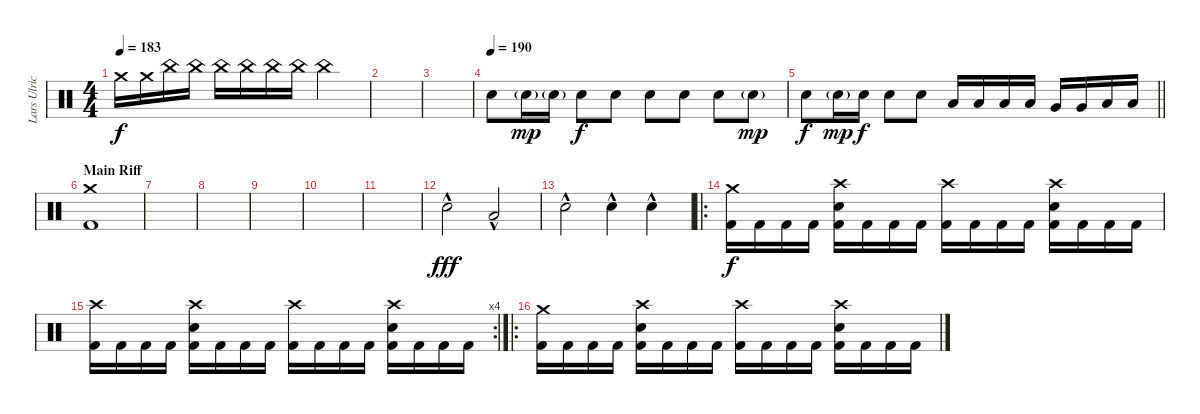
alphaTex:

\track ("Lars Ulrich" "Lars Ulric") {instrument percussion}
\staff {score}
\articulation defaults
\ts (4 4)
\tempo 183
\clef neutral
\ks c "Crash medium (hit)".16{dy f} "Crash medium (hit)".16 "China (hit)".16 "China (hit)".16 "China (hit)".16 "China (hit)".16 "China (hit)".16 "China (hit)".16 "China (hit)".2
|
|
|
\tempo (190)
"Snare (hit) 2".8 "Snare (hit) 2"{g}.16{dy mp} "Snare (hit) 2"{g}.16 "Snare (hit) 2".8{dy f} "Snare (hit) 2".8 "Snare (hit) 2".8 "Snare (hit) 2".8 "Snare (hit) 2".8 "Snare (hit) 2"{g}.8{dy mp} |
\barLineRight lightlight "Snare (hit) 2".8{dy f} "Snare (hit) 2"{g}.16{dy mp} "Snare (hit) 2".16{dy f} "Snare (hit) 2".8 "Snare (hit) 2".8 "Low Tom (hit)".16 "Low Tom (hit)".16 "Low Tom (hit)".16 "Low Tom (hit)".16 "Very Low Tom (hit)".16 "Very Low Tom (hit)".16 "Low Floor Tom (hit)".16 "Low Floor Tom (hit)".16
|
\section ("" "Main Riff")
("Crash medium (hit)" "Kick (hit) 2").1 |
|
|
|
|
|
"Snare (hit) 2"{hac}.2{dy fff} "Low Tom (hit)"{hac}.2 |
"Snare (hit) 2"{hac}.2 "Snare (hit) 2"{hac}.4 "Snare (hit) 2"{hac}.4 |
\ro
("Crash medium (hit)" "Kick (hit) 2").16{dy f} "Kick (hit) 2".16 "Kick (hit) 2".16 "Kick (hit) 2".16 ("Crash high (hit)" "Snare (hit) 2" "Kick (hit) 2").16 "Kick (hit) 2".16 "Kick (hit) 2".16 "Kick (hit) 2".16 ("Crash high (hit)" "Kick (hit) 2").16 "Kick (hit) 2".16 "Kick (hit) 2".16 "Kick (hit) 2".16 ("Crash high (hit)" "Snare (hit) 2" "Kick (hit) 2").16 "Kick (hit) 2".16 "Kick (hit) 2".16 "Kick (hit) 2".16 |
\rc 4
("Crash high (hit)" "Kick (hit) 2").16 "Kick (hit) 2".16 "Kick (hit) 2".16 "Kick (hit) 2".16 ("Crash high (hit)" "Snare (hit) 2" "Kick (hit) 2").16 "Kick (hit) 2".16 "Kick (hit) 2".16 "Kick (hit) 2".16 ("Crash high (hit)" "Kick (hit) 2").16 "Kick (hit) 2".16 "Kick (hit) 2".16 "Kick (hit) 2".16 ("Crash high (hit)" "Snare (hit) 2" "Kick (hit) 2").16 "Kick (hit) 2".16 "Kick (hit) 2".16 "Kick (hit) 2".16 |
\ro
("Crash medium (hit)" "Kick (hit) 2").16 "Kick (hit) 2".16 "Kick (hit) 2".16 "Kick (hit) 2".16 ("Crash high (hit)" "Snare (hit) 2" "Kick (hit) 2").16 "Kick (hit) 2".16 "Kick (hit) 2".16 "Kick (hit) 2".16 ("Crash high (hit)" "Kick (hit) 2").16 "Kick (hit) 2".16 "Kick (hit) 2".16 "Kick (hit) 2".16 ("Crash high (hit)" "Snare (hit) 2" "Kick (hit) 2").16 "Kick (hit) 2".16 "Kick (hit) 2".16 "Kick (hit) 2".16
